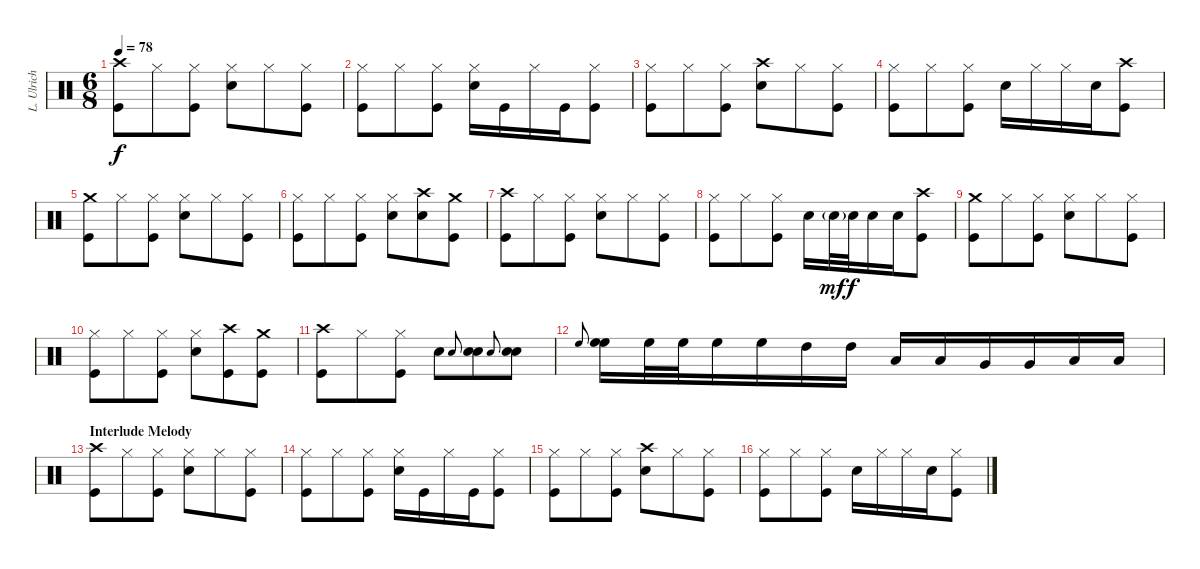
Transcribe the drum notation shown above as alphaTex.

\track ("L. Ulrich" "L. Ulrich") {instrument percussion}
\staff {score}
\articulation defaults
\ts (6 8)
\tempo 78
\clef neutral
\ks c
("Crash high (hit)" "Kick (hit)").8{dy f} "Hi-Hat (closed)".8 ("Hi-Hat (closed)" "Kick (hit)").8 ("Hi-Hat (closed)" "Snare (hit) 2").8 "Hi-Hat (closed)".8 ("Hi-Hat (closed)" "Kick (hit)").8 |
("Hi-Hat (closed)" "Kick (hit)").8 "Hi-Hat (closed)".8 ("Hi-Hat (closed)" "Kick (hit)").8 ("Hi-Hat (closed)" "Snare (hit) 2").16 "Kick (hit)".16 "Hi-Hat (closed)".16 "Kick (hit)".16 ("Hi-Hat (closed)" "Kick (hit)").8 |
("Hi-Hat (closed)" "Kick (hit)").8 "Hi-Hat (closed)".8 ("Hi-Hat (closed)" "Kick (hit)").8 ("Crash high (hit)" "Snare (hit) 2").8 "Hi-Hat (closed)".8 ("Hi-Hat (closed)" "Kick (hit)").8 |
("Hi-Hat (closed)" "Kick (hit)").8 "Hi-Hat (closed)".8 ("Hi-Hat (closed)" "Kick (hit)").8 "Snare (hit) 2".16 "Hi-Hat (closed)".16 "Hi-Hat (closed)".16 "Snare (hit) 2".16 ("Crash high (hit)" "Kick (hit)").8 |
("Crash medium (hit)" "Kick (hit)").8 "Hi-Hat (closed)".8 ("Hi-Hat (closed)" "Kick (hit)").8 ("Hi-Hat (closed)" "Snare (hit) 2").8 "Hi-Hat (closed)".8 ("Hi-Hat (closed)" "Kick (hit)").8 |
("Hi-Hat (closed)" "Kick (hit)").8 "Hi-Hat (closed)".8 ("Hi-Hat (closed)" "Kick (hit)").8 ("Hi-Hat (closed)" "Snare (hit) 2").8 ("Crash high (hit)" "Snare (hit) 2").8 ("Crash medium (hit)" "Kick (hit)").8 |
("Crash high (hit)" "Kick (hit)").8 "Hi-Hat (closed)".8 ("Hi-Hat (closed)" "Kick (hit)").8 ("Hi-Hat (closed)" "Snare (hit) 2").8 "Hi-Hat (closed)".8 ("Hi-Hat (closed)" "Kick (hit)").8 |
("Hi-Hat (closed)" "Kick (hit)").8 "Hi-Hat (closed)".8 ("Hi-Hat (closed)" "Kick (hit)").8 "Snare (hit) 2".16 "Snare (hit) 2"{g}.32{dy mf} "Snare (hit) 2".32{dy f} "Snare (hit) 2".16 "Snare (hit) 2".16 ("Crash high (hit)" "Kick (hit)").8 |
("Crash medium (hit)" "Kick (hit)").8 "Hi-Hat (closed)".8 ("Hi-Hat (closed)" "Kick (hit)").8 ("Hi-Hat (closed)" "Snare (hit) 2").8 "Hi-Hat (closed)".8 ("Hi-Hat (closed)" "Kick (hit)").8 |
("Hi-Hat (closed)" "Kick (hit)").8 "Hi-Hat (closed)".8 ("Hi-Hat (closed)" "Kick (hit)").8 ("Hi-Hat (closed)" "Snare (hit) 2").8 ("Crash high (hit)" "Kick (hit)").8 ("Crash medium (hit)" "Kick (hit)").8 |
("Crash high (hit)" "Kick (hit)").8 "Hi-Hat (closed)".8 ("Hi-Hat (closed)" "Kick (hit)").8 "Snare (hit) 2".8 "Snare (hit) 2".8{gr onbeat} ("Snare (hit) 2" "Snare (hit) 2").8 "Snare (hit) 2".8{gr onbeat} ("Snare (hit) 2" "Snare (hit) 2").8 |
"High Floor Tom (hit)".8{gr onbeat} ("High Floor Tom (hit)" "High Floor Tom (hit)").16 "High Floor Tom (hit)".32 "High Floor Tom (hit)".32 "High Floor Tom (hit)".16 "High Floor Tom (hit)".16 "High Tom (hit)".16 "High Tom (hit)".16 "Low Tom (hit)".16 "Low Tom (hit)".16 "Very Low Tom (hit)".16 "Very Low Tom (hit)".16 "Low Floor Tom (hit)".16 "Low Floor Tom (hit)".16 |
\section ("" "Interlude Melody")
("Crash high (hit)" "Kick (hit)").8 "Hi-Hat (closed)".8 ("Hi-Hat (closed)" "Kick (hit)").8 ("Hi-Hat (closed)" "Snare (hit) 2").8 "Hi-Hat (closed)".8 ("Hi-Hat (closed)" "Kick (hit)").8 |
("Hi-Hat (closed)" "Kick (hit)").8 "Hi-Hat (closed)".8 ("Hi-Hat (closed)" "Kick (hit)").8 ("Hi-Hat (closed)" "Snare (hit) 2").16 "Kick (hit)".16 "Hi-Hat (closed)".16 "Kick (hit)".16 ("Hi-Hat (closed)" "Kick (hit)").8 |
("Hi-Hat (closed)" "Kick (hit)").8 "Hi-Hat (closed)".8 ("Hi-Hat (closed)" "Kick (hit)").8 ("Crash high (hit)" "Snare (hit) 2").8 "Hi-Hat (closed)".8 ("Hi-Hat (closed)" "Kick (hit)").8 |
("Hi-Hat (closed)" "Kick (hit)").8 "Hi-Hat (closed)".8 ("Hi-Hat (closed)" "Kick (hit)").8 "Snare (hit) 2".16 "Hi-Hat (closed)".16 "Hi-Hat (closed)".16 "Snare (hit) 2".16 ("Hi-Hat (closed)" "Kick (hit)").8
